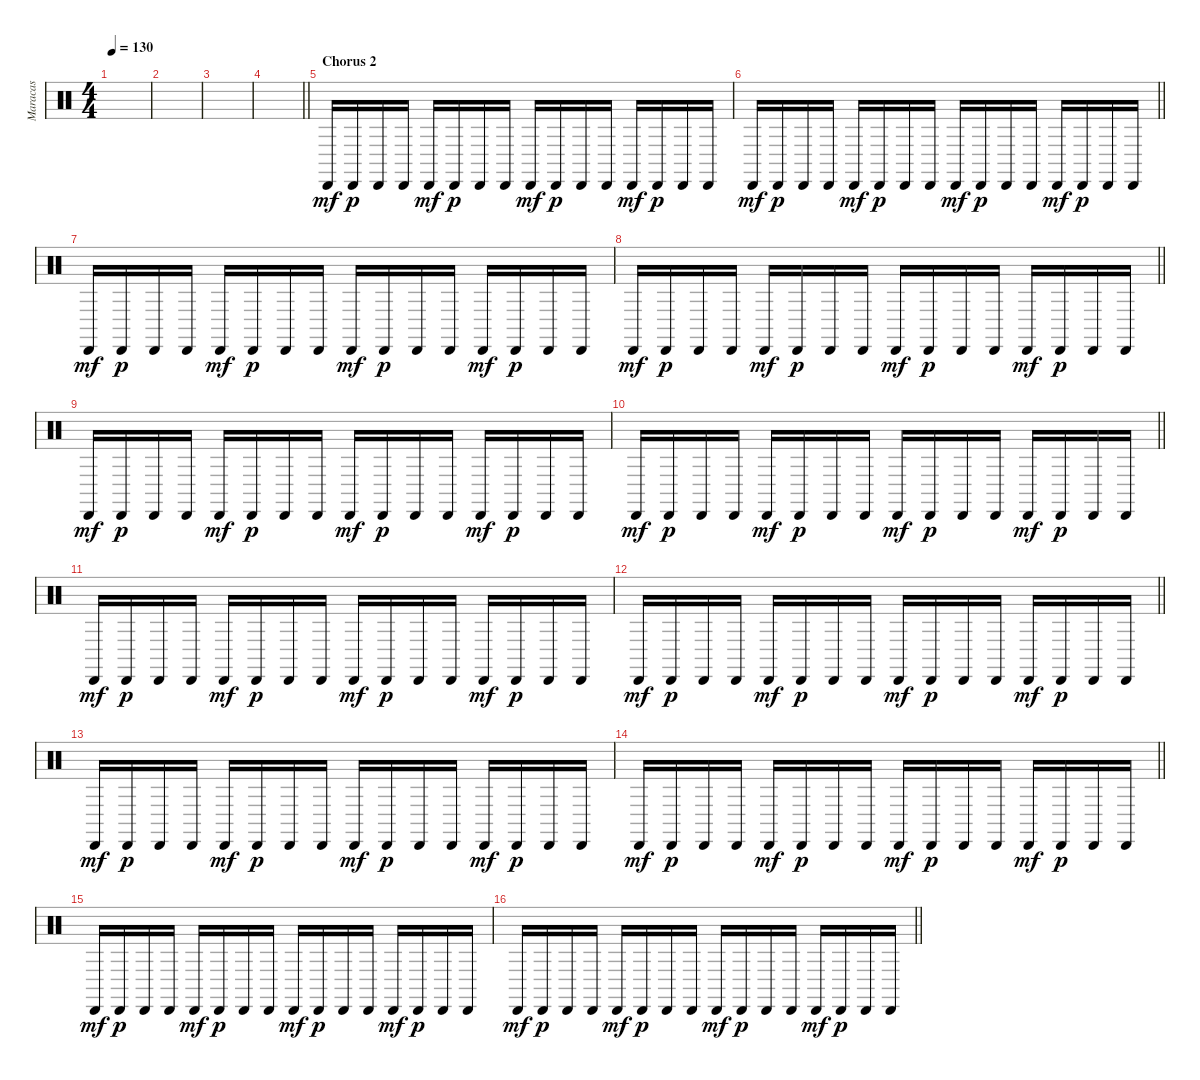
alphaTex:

\track ("Maracas" "Maracas") {instrument percussion}
\staff {score}
\articulation defaults
\ts (4 4)
\tempo 130
\clef neutral
\ks c
|
|
|
\barLineRight lightlight
|
\section ("" "Chorus 2")
"Cabasa (hit)".16{dy mf} "Cabasa (hit)".16{dy p} "Cabasa (hit)".16 "Cabasa (hit)".16 "Cabasa (hit)".16{dy mf} "Cabasa (hit)".16{dy p} "Cabasa (hit)".16 "Cabasa (hit)".16 "Cabasa (hit)".16{dy mf} "Cabasa (hit)".16{dy p} "Cabasa (hit)".16 "Cabasa (hit)".16 "Cabasa (hit)".16{dy mf} "Cabasa (hit)".16{dy p} "Cabasa (hit)".16 "Cabasa (hit)".16 |
\barLineRight lightlight "Cabasa (hit)".16{dy mf} "Cabasa (hit)".16{dy p} "Cabasa (hit)".16 "Cabasa (hit)".16 "Cabasa (hit)".16{dy mf} "Cabasa (hit)".16{dy p} "Cabasa (hit)".16 "Cabasa (hit)".16 "Cabasa (hit)".16{dy mf} "Cabasa (hit)".16{dy p} "Cabasa (hit)".16 "Cabasa (hit)".16 "Cabasa (hit)".16{dy mf} "Cabasa (hit)".16{dy p} "Cabasa (hit)".16 "Cabasa (hit)".16
|
"Cabasa (hit)".16{dy mf} "Cabasa (hit)".16{dy p} "Cabasa (hit)".16 "Cabasa (hit)".16 "Cabasa (hit)".16{dy mf} "Cabasa (hit)".16{dy p} "Cabasa (hit)".16 "Cabasa (hit)".16 "Cabasa (hit)".16{dy mf} "Cabasa (hit)".16{dy p} "Cabasa (hit)".16 "Cabasa (hit)".16 "Cabasa (hit)".16{dy mf} "Cabasa (hit)".16{dy p} "Cabasa (hit)".16 "Cabasa (hit)".16 |
\barLineRight lightlight "Cabasa (hit)".16{dy mf} "Cabasa (hit)".16{dy p} "Cabasa (hit)".16 "Cabasa (hit)".16 "Cabasa (hit)".16{dy mf} "Cabasa (hit)".16{dy p} "Cabasa (hit)".16 "Cabasa (hit)".16 "Cabasa (hit)".16{dy mf} "Cabasa (hit)".16{dy p} "Cabasa (hit)".16 "Cabasa (hit)".16 "Cabasa (hit)".16{dy mf} "Cabasa (hit)".16{dy p} "Cabasa (hit)".16 "Cabasa (hit)".16
|
"Cabasa (hit)".16{dy mf} "Cabasa (hit)".16{dy p} "Cabasa (hit)".16 "Cabasa (hit)".16 "Cabasa (hit)".16{dy mf} "Cabasa (hit)".16{dy p} "Cabasa (hit)".16 "Cabasa (hit)".16 "Cabasa (hit)".16{dy mf} "Cabasa (hit)".16{dy p} "Cabasa (hit)".16 "Cabasa (hit)".16 "Cabasa (hit)".16{dy mf} "Cabasa (hit)".16{dy p} "Cabasa (hit)".16 "Cabasa (hit)".16 |
\barLineRight lightlight "Cabasa (hit)".16{dy mf} "Cabasa (hit)".16{dy p} "Cabasa (hit)".16 "Cabasa (hit)".16 "Cabasa (hit)".16{dy mf} "Cabasa (hit)".16{dy p} "Cabasa (hit)".16 "Cabasa (hit)".16 "Cabasa (hit)".16{dy mf} "Cabasa (hit)".16{dy p} "Cabasa (hit)".16 "Cabasa (hit)".16 "Cabasa (hit)".16{dy mf} "Cabasa (hit)".16{dy p} "Cabasa (hit)".16 "Cabasa (hit)".16
|
"Cabasa (hit)".16{dy mf} "Cabasa (hit)".16{dy p} "Cabasa (hit)".16 "Cabasa (hit)".16 "Cabasa (hit)".16{dy mf} "Cabasa (hit)".16{dy p} "Cabasa (hit)".16 "Cabasa (hit)".16 "Cabasa (hit)".16{dy mf} "Cabasa (hit)".16{dy p} "Cabasa (hit)".16 "Cabasa (hit)".16 "Cabasa (hit)".16{dy mf} "Cabasa (hit)".16{dy p} "Cabasa (hit)".16 "Cabasa (hit)".16 |
\barLineRight lightlight "Cabasa (hit)".16{dy mf} "Cabasa (hit)".16{dy p} "Cabasa (hit)".16 "Cabasa (hit)".16 "Cabasa (hit)".16{dy mf} "Cabasa (hit)".16{dy p} "Cabasa (hit)".16 "Cabasa (hit)".16 "Cabasa (hit)".16{dy mf} "Cabasa (hit)".16{dy p} "Cabasa (hit)".16 "Cabasa (hit)".16 "Cabasa (hit)".16{dy mf} "Cabasa (hit)".16{dy p} "Cabasa (hit)".16 "Cabasa (hit)".16
|
"Cabasa (hit)".16{dy mf} "Cabasa (hit)".16{dy p} "Cabasa (hit)".16 "Cabasa (hit)".16 "Cabasa (hit)".16{dy mf} "Cabasa (hit)".16{dy p} "Cabasa (hit)".16 "Cabasa (hit)".16 "Cabasa (hit)".16{dy mf} "Cabasa (hit)".16{dy p} "Cabasa (hit)".16 "Cabasa (hit)".16 "Cabasa (hit)".16{dy mf} "Cabasa (hit)".16{dy p} "Cabasa (hit)".16 "Cabasa (hit)".16 |
\barLineRight lightlight "Cabasa (hit)".16{dy mf} "Cabasa (hit)".16{dy p} "Cabasa (hit)".16 "Cabasa (hit)".16 "Cabasa (hit)".16{dy mf} "Cabasa (hit)".16{dy p} "Cabasa (hit)".16 "Cabasa (hit)".16 "Cabasa (hit)".16{dy mf} "Cabasa (hit)".16{dy p} "Cabasa (hit)".16 "Cabasa (hit)".16 "Cabasa (hit)".16{dy mf} "Cabasa (hit)".16{dy p} "Cabasa (hit)".16 "Cabasa (hit)".16
|
"Cabasa (hit)".16{dy mf} "Cabasa (hit)".16{dy p} "Cabasa (hit)".16 "Cabasa (hit)".16 "Cabasa (hit)".16{dy mf} "Cabasa (hit)".16{dy p} "Cabasa (hit)".16 "Cabasa (hit)".16 "Cabasa (hit)".16{dy mf} "Cabasa (hit)".16{dy p} "Cabasa (hit)".16 "Cabasa (hit)".16 "Cabasa (hit)".16{dy mf} "Cabasa (hit)".16{dy p} "Cabasa (hit)".16 "Cabasa (hit)".16 |
\barLineRight lightlight "Cabasa (hit)".16{dy mf} "Cabasa (hit)".16{dy p} "Cabasa (hit)".16 "Cabasa (hit)".16 "Cabasa (hit)".16{dy mf} "Cabasa (hit)".16{dy p} "Cabasa (hit)".16 "Cabasa (hit)".16 "Cabasa (hit)".16{dy mf} "Cabasa (hit)".16{dy p} "Cabasa (hit)".16 "Cabasa (hit)".16 "Cabasa (hit)".16{dy mf} "Cabasa (hit)".16{dy p} "Cabasa (hit)".16 "Cabasa (hit)".16
